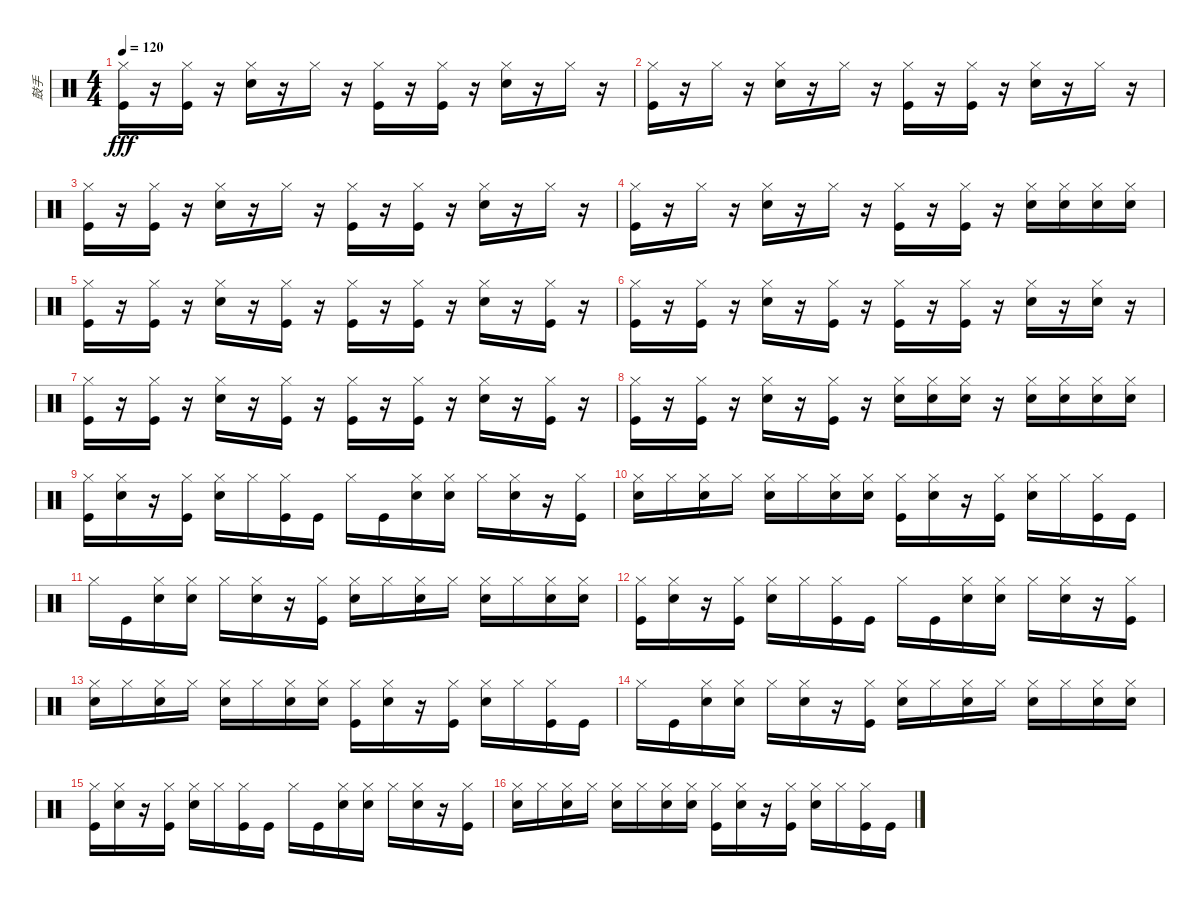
\track ("鼓手" "鼓手") {instrument percussion}
\staff {score}
\articulation defaults
\ts (4 4)
\tempo 120
\clef neutral
\ks c
("Kick (hit)" "Hi-Hat (closed)").16{dy fff} r.16 ("Kick (hit)" "Hi-Hat (closed)").16 r.16 ("Snare (hit) 2" "Hi-Hat (closed)").16 r.16 "Hi-Hat (closed)".16 r.16 ("Kick (hit)" "Hi-Hat (closed)").16 r.16 ("Kick (hit)" "Hi-Hat (closed)").16 r.16 ("Snare (hit) 2" "Hi-Hat (closed)").16 r.16 "Hi-Hat (closed)".16 r.16 |
("Kick (hit)" "Hi-Hat (closed)").16 r.16 "Hi-Hat (closed)".16 r.16 ("Snare (hit) 2" "Hi-Hat (closed)").16 r.16 "Hi-Hat (closed)".16 r.16 ("Kick (hit)" "Hi-Hat (closed)").16 r.16 ("Kick (hit)" "Hi-Hat (closed)").16 r.16 ("Snare (hit) 2" "Hi-Hat (closed)").16 r.16 "Hi-Hat (closed)".16 r.16 |
("Kick (hit)" "Hi-Hat (closed)").16 r.16 ("Kick (hit)" "Hi-Hat (closed)").16 r.16 ("Snare (hit) 2" "Hi-Hat (closed)").16 r.16 "Hi-Hat (closed)".16 r.16 ("Kick (hit)" "Hi-Hat (closed)").16 r.16 ("Kick (hit)" "Hi-Hat (closed)").16 r.16 ("Snare (hit) 2" "Hi-Hat (closed)").16 r.16 "Hi-Hat (closed)".16 r.16 |
("Kick (hit)" "Hi-Hat (closed)").16 r.16 "Hi-Hat (closed)".16 r.16 ("Snare (hit) 2" "Hi-Hat (closed)").16 r.16 "Hi-Hat (closed)".16 r.16 ("Kick (hit)" "Hi-Hat (closed)").16 r.16 ("Kick (hit)" "Hi-Hat (closed)").16 r.16 ("Snare (hit) 2" "Hi-Hat (closed)").16 ("Snare (hit) 2" "Hi-Hat (closed)").16 ("Snare (hit) 2" "Hi-Hat (closed)").16 ("Snare (hit) 2" "Hi-Hat (closed)").16 |
("Kick (hit)" "Hi-Hat (closed)").16 r.16 ("Kick (hit)" "Hi-Hat (closed)").16 r.16 ("Snare (hit) 2" "Hi-Hat (closed)").16 r.16 ("Kick (hit)" "Hi-Hat (closed)").16 r.16 ("Kick (hit)" "Hi-Hat (closed)").16 r.16 ("Kick (hit)" "Hi-Hat (closed)").16 r.16 ("Snare (hit) 2" "Hi-Hat (closed)").16 r.16 ("Kick (hit)" "Hi-Hat (closed)").16 r.16 |
("Kick (hit)" "Hi-Hat (closed)").16 r.16 ("Kick (hit)" "Hi-Hat (closed)").16 r.16 ("Snare (hit) 2" "Hi-Hat (closed)").16 r.16 ("Kick (hit)" "Hi-Hat (closed)").16 r.16 ("Kick (hit)" "Hi-Hat (closed)").16 r.16 ("Kick (hit)" "Hi-Hat (closed)").16 r.16 ("Snare (hit) 2" "Hi-Hat (closed)").16 r.16 ("Snare (hit) 2" "Hi-Hat (closed)").16 r.16 |
("Kick (hit)" "Hi-Hat (closed)").16 r.16 ("Kick (hit)" "Hi-Hat (closed)").16 r.16 ("Snare (hit) 2" "Hi-Hat (closed)").16 r.16 ("Kick (hit)" "Hi-Hat (closed)").16 r.16 ("Kick (hit)" "Hi-Hat (closed)").16 r.16 ("Kick (hit)" "Hi-Hat (closed)").16 r.16 ("Snare (hit) 2" "Hi-Hat (closed)").16 r.16 ("Kick (hit)" "Hi-Hat (closed)").16 r.16 |
("Kick (hit)" "Hi-Hat (closed)").16 r.16 ("Kick (hit)" "Hi-Hat (closed)").16 r.16 ("Snare (hit) 2" "Hi-Hat (closed)").16 r.16 ("Kick (hit)" "Hi-Hat (closed)").16 r.16 ("Snare (hit) 2" "Hi-Hat (closed)").16 ("Snare (hit) 2" "Hi-Hat (closed)").16 ("Snare (hit) 2" "Hi-Hat (closed)").16 r.16 ("Snare (hit) 2" "Hi-Hat (closed)").16 ("Snare (hit) 2" "Hi-Hat (closed)").16 ("Snare (hit) 2" "Hi-Hat (closed)").16 ("Snare (hit) 2" "Hi-Hat (closed)").16 |
("Kick (hit)" "Hi-Hat (closed)").16 ("Snare (hit) 2" "Hi-Hat (closed)").16 r.16 ("Kick (hit)" "Hi-Hat (closed)").16 ("Snare (hit) 2" "Hi-Hat (closed)").16 "Hi-Hat (closed)".16 ("Kick (hit)" "Hi-Hat (closed)").16 "Kick (hit)".16 "Hi-Hat (closed)".16 "Kick (hit)".16 ("Snare (hit) 2" "Hi-Hat (closed)").16 ("Snare (hit) 2" "Hi-Hat (closed)").16 "Hi-Hat (closed)".16 ("Snare (hit) 2" "Hi-Hat (closed)").16 r.16 ("Kick (hit)" "Hi-Hat (closed)").16 |
("Snare (hit) 2" "Hi-Hat (closed)").16 "Hi-Hat (closed)".16 ("Snare (hit) 2" "Hi-Hat (closed)").16 "Hi-Hat (closed)".16 ("Snare (hit) 2" "Hi-Hat (closed)").16 "Hi-Hat (closed)".16 ("Snare (hit) 2" "Hi-Hat (closed)").16 ("Snare (hit) 2" "Hi-Hat (closed)").16 ("Kick (hit)" "Hi-Hat (closed)").16 ("Snare (hit) 2" "Hi-Hat (closed)").16 r.16 ("Kick (hit)" "Hi-Hat (closed)").16 ("Snare (hit) 2" "Hi-Hat (closed)").16 "Hi-Hat (closed)".16 ("Kick (hit)" "Hi-Hat (closed)").16 "Kick (hit)".16 |
"Hi-Hat (closed)".16 "Kick (hit)".16 ("Snare (hit) 2" "Hi-Hat (closed)").16 ("Snare (hit) 2" "Hi-Hat (closed)").16 "Hi-Hat (closed)".16 ("Snare (hit) 2" "Hi-Hat (closed)").16 r.16 ("Kick (hit)" "Hi-Hat (closed)").16 ("Snare (hit) 2" "Hi-Hat (closed)").16 "Hi-Hat (closed)".16 ("Snare (hit) 2" "Hi-Hat (closed)").16 "Hi-Hat (closed)".16 ("Snare (hit) 2" "Hi-Hat (closed)").16 "Hi-Hat (closed)".16 ("Snare (hit) 2" "Hi-Hat (closed)").16 ("Snare (hit) 2" "Hi-Hat (closed)").16 |
("Kick (hit)" "Hi-Hat (closed)").16 ("Snare (hit) 2" "Hi-Hat (closed)").16 r.16 ("Kick (hit)" "Hi-Hat (closed)").16 ("Snare (hit) 2" "Hi-Hat (closed)").16 "Hi-Hat (closed)".16 ("Kick (hit)" "Hi-Hat (closed)").16 "Kick (hit)".16 "Hi-Hat (closed)".16 "Kick (hit)".16 ("Snare (hit) 2" "Hi-Hat (closed)").16 ("Snare (hit) 2" "Hi-Hat (closed)").16 "Hi-Hat (closed)".16 ("Snare (hit) 2" "Hi-Hat (closed)").16 r.16 ("Kick (hit)" "Hi-Hat (closed)").16 |
("Snare (hit) 2" "Hi-Hat (closed)").16 "Hi-Hat (closed)".16 ("Snare (hit) 2" "Hi-Hat (closed)").16 "Hi-Hat (closed)".16 ("Snare (hit) 2" "Hi-Hat (closed)").16 "Hi-Hat (closed)".16 ("Snare (hit) 2" "Hi-Hat (closed)").16 ("Snare (hit) 2" "Hi-Hat (closed)").16 ("Kick (hit)" "Hi-Hat (closed)").16 ("Snare (hit) 2" "Hi-Hat (closed)").16 r.16 ("Kick (hit)" "Hi-Hat (closed)").16 ("Snare (hit) 2" "Hi-Hat (closed)").16 "Hi-Hat (closed)".16 ("Kick (hit)" "Hi-Hat (closed)").16 "Kick (hit)".16 |
"Hi-Hat (closed)".16 "Kick (hit)".16 ("Snare (hit) 2" "Hi-Hat (closed)").16 ("Snare (hit) 2" "Hi-Hat (closed)").16 "Hi-Hat (closed)".16 ("Snare (hit) 2" "Hi-Hat (closed)").16 r.16 ("Kick (hit)" "Hi-Hat (closed)").16 ("Snare (hit) 2" "Hi-Hat (closed)").16 "Hi-Hat (closed)".16 ("Snare (hit) 2" "Hi-Hat (closed)").16 "Hi-Hat (closed)".16 ("Snare (hit) 2" "Hi-Hat (closed)").16 "Hi-Hat (closed)".16 ("Snare (hit) 2" "Hi-Hat (closed)").16 ("Snare (hit) 2" "Hi-Hat (closed)").16 |
("Kick (hit)" "Hi-Hat (closed)").16 ("Snare (hit) 2" "Hi-Hat (closed)").16 r.16 ("Kick (hit)" "Hi-Hat (closed)").16 ("Snare (hit) 2" "Hi-Hat (closed)").16 "Hi-Hat (closed)".16 ("Kick (hit)" "Hi-Hat (closed)").16 "Kick (hit)".16 "Hi-Hat (closed)".16 "Kick (hit)".16 ("Snare (hit) 2" "Hi-Hat (closed)").16 ("Snare (hit) 2" "Hi-Hat (closed)").16 "Hi-Hat (closed)".16 ("Snare (hit) 2" "Hi-Hat (closed)").16 r.16 ("Kick (hit)" "Hi-Hat (closed)").16 |
("Snare (hit) 2" "Hi-Hat (closed)").16 "Hi-Hat (closed)".16 ("Snare (hit) 2" "Hi-Hat (closed)").16 "Hi-Hat (closed)".16 ("Snare (hit) 2" "Hi-Hat (closed)").16 "Hi-Hat (closed)".16 ("Snare (hit) 2" "Hi-Hat (closed)").16 ("Snare (hit) 2" "Hi-Hat (closed)").16 ("Kick (hit)" "Hi-Hat (closed)").16 ("Snare (hit) 2" "Hi-Hat (closed)").16 r.16 ("Kick (hit)" "Hi-Hat (closed)").16 ("Snare (hit) 2" "Hi-Hat (closed)").16 "Hi-Hat (closed)".16 ("Kick (hit)" "Hi-Hat (closed)").16 "Kick (hit)".16
